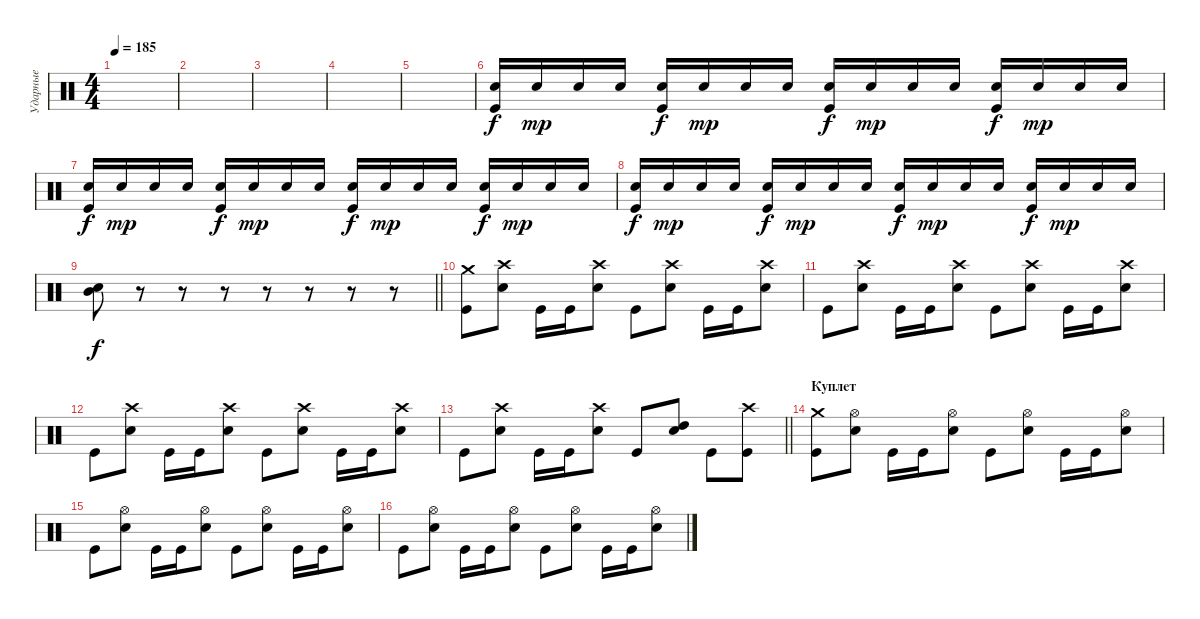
\track ("Ударные" "Ударные") {instrument percussion}
\staff {score}
\articulation defaults
\ts (4 4)
\tempo 185
\clef neutral
\ks c
|
|
|
|
|
("Electric Snare (hit)" "Kick (hit)").16 "Electric Snare (hit)".16{dy mp} "Electric Snare (hit)".16 "Electric Snare (hit)".16 ("Electric Snare (hit)" "Kick (hit)").16{dy f} "Electric Snare (hit)".16{dy mp} "Electric Snare (hit)".16 "Electric Snare (hit)".16 ("Electric Snare (hit)" "Kick (hit)").16{dy f} "Electric Snare (hit)".16{dy mp} "Electric Snare (hit)".16 "Electric Snare (hit)".16 ("Electric Snare (hit)" "Kick (hit)").16{dy f} "Electric Snare (hit)".16{dy mp} "Electric Snare (hit)".16 "Electric Snare (hit)".16 |
("Electric Snare (hit)" "Kick (hit)").16{dy f} "Electric Snare (hit)".16{dy mp} "Electric Snare (hit)".16 "Electric Snare (hit)".16 ("Electric Snare (hit)" "Kick (hit)").16{dy f} "Electric Snare (hit)".16{dy mp} "Electric Snare (hit)".16 "Electric Snare (hit)".16 ("Electric Snare (hit)" "Kick (hit)").16{dy f} "Electric Snare (hit)".16{dy mp} "Electric Snare (hit)".16 "Electric Snare (hit)".16 ("Electric Snare (hit)" "Kick (hit)").16{dy f} "Electric Snare (hit)".16{dy mp} "Electric Snare (hit)".16 "Electric Snare (hit)".16 |
("Electric Snare (hit)" "Kick (hit)").16{dy f} "Electric Snare (hit)".16{dy mp} "Electric Snare (hit)".16 "Electric Snare (hit)".16 ("Electric Snare (hit)" "Kick (hit)").16{dy f} "Electric Snare (hit)".16{dy mp} "Electric Snare (hit)".16 "Electric Snare (hit)".16 ("Electric Snare (hit)" "Kick (hit)").16{dy f} "Electric Snare (hit)".16{dy mp} "Electric Snare (hit)".16 "Electric Snare (hit)".16 ("Electric Snare (hit)" "Kick (hit)").16{dy f} "Electric Snare (hit)".16{dy mp} "Electric Snare (hit)".16 "Electric Snare (hit)".16 |
\barLineRight lightlight
("Mid Tom (hit)" "Electric Snare (hit)").8{dy f} r.8 r.8 r.8 r.8 r.8 r.8 r.8 |
\section ("" " ")
("Crash medium (hit)" "Kick (hit)").8 ("Crash high (hit)" "Electric Snare (hit)").8 "Kick (hit)".16 "Kick (hit)".16 ("Crash high (hit)" "Electric Snare (hit)").8 "Kick (hit)".8 ("Crash high (hit)" "Electric Snare (hit)").8 "Kick (hit)".16 "Kick (hit)".16 ("Crash high (hit)" "Electric Snare (hit)").8 |
"Kick (hit)".8 ("Crash high (hit)" "Electric Snare (hit)").8 "Kick (hit)".16 "Kick (hit)".16 ("Crash high (hit)" "Electric Snare (hit)").8 "Kick (hit)".8 ("Crash high (hit)" "Electric Snare (hit)").8 "Kick (hit)".16 "Kick (hit)".16 ("Crash high (hit)" "Electric Snare (hit)").8 |
"Kick (hit)".8 ("Crash high (hit)" "Electric Snare (hit)").8 "Kick (hit)".16 "Kick (hit)".16 ("Crash high (hit)" "Electric Snare (hit)").8 "Kick (hit)".8 ("Crash high (hit)" "Electric Snare (hit)").8 "Kick (hit)".16 "Kick (hit)".16 ("Crash high (hit)" "Electric Snare (hit)").8 |
\barLineRight lightlight "Kick (hit)".8
("Crash high (hit)" "Electric Snare (hit)").8 "Kick (hit)".16 "Kick (hit)".16 ("Crash high (hit)" "Electric Snare (hit)").8 "Kick (hit)".8 ("High Tom (hit)" "Electric Snare (hit)").8 "Kick (hit)".8 ("Crash high (hit)" "Kick (hit)").8 |
\section ("" "Куплет")
("Crash medium (hit)" "Kick (hit)").8 ("Hi-Hat (open)" "Electric Snare (hit)").8 "Kick (hit)".16 "Kick (hit)".16 ("Hi-Hat (open)" "Electric Snare (hit)").8 "Kick (hit)".8 ("Hi-Hat (open)" "Electric Snare (hit)").8 "Kick (hit)".16 "Kick (hit)".16 ("Hi-Hat (open)" "Electric Snare (hit)").8 |
"Kick (hit)".8 ("Hi-Hat (open)" "Electric Snare (hit)").8 "Kick (hit)".16 "Kick (hit)".16 ("Hi-Hat (open)" "Electric Snare (hit)").8 "Kick (hit)".8 ("Hi-Hat (open)" "Electric Snare (hit)").8 "Kick (hit)".16 "Kick (hit)".16 ("Hi-Hat (open)" "Electric Snare (hit)").8 |
"Kick (hit)".8 ("Hi-Hat (open)" "Electric Snare (hit)").8 "Kick (hit)".16 "Kick (hit)".16 ("Hi-Hat (open)" "Electric Snare (hit)").8 "Kick (hit)".8 ("Hi-Hat (open)" "Electric Snare (hit)").8 "Kick (hit)".16 "Kick (hit)".16 ("Hi-Hat (open)" "Electric Snare (hit)").8
